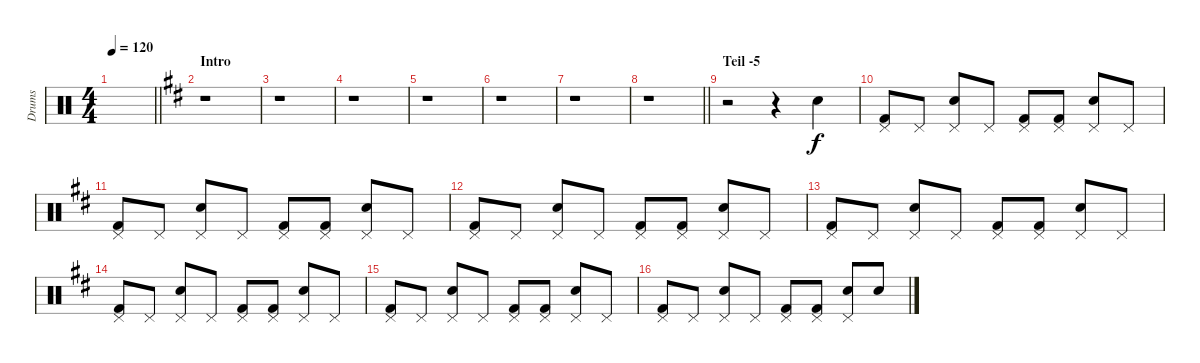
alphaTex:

\track ("Drums" "Drums") {instrument percussion}
\staff {score}
\articulation defaults
\ts (4 4)
\tempo 120
\clef neutral
\barLineRight lightlight
\ks c
|
\section ("" "Intro")
\ks d
r.1 |
r.1 |
r.1 |
r.1 |
r.1 |
r.1 |
\barLineRight lightlight
r.1 |
\section ("" "Teil -5")
r.2 r.4 "Electric Snare (hit)".4 |
("Pedal Hi-Hat (hit)" "Kick (hit) 2").8 "Pedal Hi-Hat (hit)".8 ("Pedal Hi-Hat (hit)" "Electric Snare (hit)").8 "Pedal Hi-Hat (hit)".8 ("Pedal Hi-Hat (hit)" "Kick (hit) 2").8 ("Pedal Hi-Hat (hit)" "Kick (hit) 2").8 ("Pedal Hi-Hat (hit)" "Electric Snare (hit)").8 "Pedal Hi-Hat (hit)".8 |
("Pedal Hi-Hat (hit)" "Kick (hit) 2").8 "Pedal Hi-Hat (hit)".8 ("Pedal Hi-Hat (hit)" "Electric Snare (hit)").8 "Pedal Hi-Hat (hit)".8 ("Pedal Hi-Hat (hit)" "Kick (hit) 2").8 ("Pedal Hi-Hat (hit)" "Kick (hit) 2").8 ("Pedal Hi-Hat (hit)" "Electric Snare (hit)").8 "Pedal Hi-Hat (hit)".8 |
("Pedal Hi-Hat (hit)" "Kick (hit) 2").8 "Pedal Hi-Hat (hit)".8 ("Pedal Hi-Hat (hit)" "Electric Snare (hit)").8 "Pedal Hi-Hat (hit)".8 ("Pedal Hi-Hat (hit)" "Kick (hit) 2").8 ("Pedal Hi-Hat (hit)" "Kick (hit) 2").8 ("Pedal Hi-Hat (hit)" "Electric Snare (hit)").8 "Pedal Hi-Hat (hit)".8 |
("Pedal Hi-Hat (hit)" "Kick (hit) 2").8 "Pedal Hi-Hat (hit)".8 ("Pedal Hi-Hat (hit)" "Electric Snare (hit)").8 "Pedal Hi-Hat (hit)".8 ("Pedal Hi-Hat (hit)" "Kick (hit) 2").8 ("Pedal Hi-Hat (hit)" "Kick (hit) 2").8 ("Pedal Hi-Hat (hit)" "Electric Snare (hit)").8 "Pedal Hi-Hat (hit)".8 |
("Pedal Hi-Hat (hit)" "Kick (hit) 2").8 "Pedal Hi-Hat (hit)".8 ("Pedal Hi-Hat (hit)" "Electric Snare (hit)").8 "Pedal Hi-Hat (hit)".8 ("Pedal Hi-Hat (hit)" "Kick (hit) 2").8 ("Pedal Hi-Hat (hit)" "Kick (hit) 2").8 ("Pedal Hi-Hat (hit)" "Electric Snare (hit)").8 "Pedal Hi-Hat (hit)".8 |
("Pedal Hi-Hat (hit)" "Kick (hit) 2").8 "Pedal Hi-Hat (hit)".8 ("Pedal Hi-Hat (hit)" "Electric Snare (hit)").8 "Pedal Hi-Hat (hit)".8 ("Pedal Hi-Hat (hit)" "Kick (hit) 2").8 ("Pedal Hi-Hat (hit)" "Kick (hit) 2").8 ("Pedal Hi-Hat (hit)" "Electric Snare (hit)").8 "Pedal Hi-Hat (hit)".8 |
("Pedal Hi-Hat (hit)" "Kick (hit) 2").8 "Pedal Hi-Hat (hit)".8 ("Pedal Hi-Hat (hit)" "Electric Snare (hit)").8 "Pedal Hi-Hat (hit)".8 ("Pedal Hi-Hat (hit)" "Kick (hit) 2").8 ("Pedal Hi-Hat (hit)" "Kick (hit) 2").8 ("Pedal Hi-Hat (hit)" "Electric Snare (hit)").8 "Electric Snare (hit)".8
